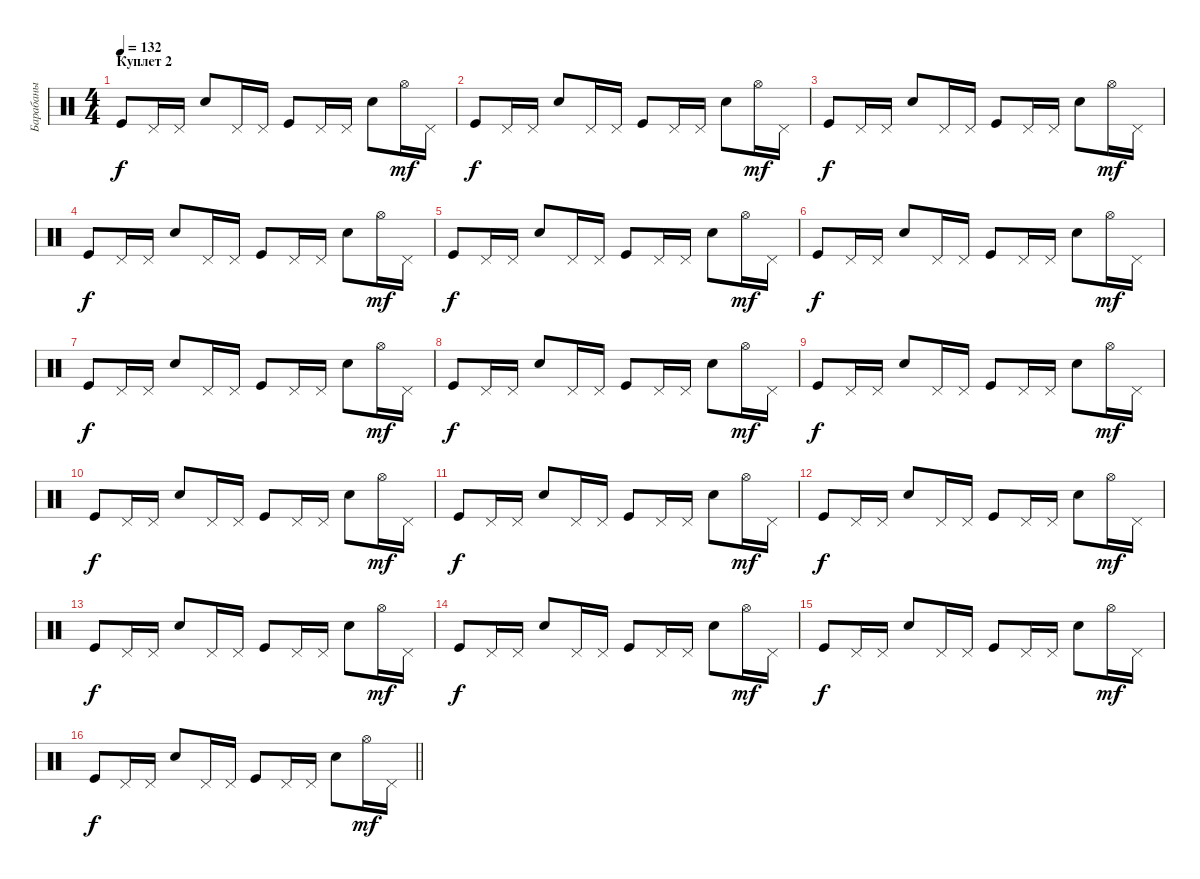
\track ("Барабаны" "Барабаны") {instrument percussion}
\staff {score}
\articulation defaults
\ts (4 4)
\section ("" "Куплет 2")
\tempo 132
\clef neutral
\ks c "Kick (hit)".8{dy f} "Pedal Hi-Hat (hit)".16 "Pedal Hi-Hat (hit)".16 "Snare (hit) 2".8 "Pedal Hi-Hat (hit)".16 "Pedal Hi-Hat (hit)".16 "Kick (hit)".8 "Pedal Hi-Hat (hit)".16 "Pedal Hi-Hat (hit)".16 "Snare (hit) 2".8 "Hi-Hat (open)".16{dy mf} "Pedal Hi-Hat (hit)".16
|
"Kick (hit)".8{dy f} "Pedal Hi-Hat (hit)".16 "Pedal Hi-Hat (hit)".16 "Snare (hit) 2".8 "Pedal Hi-Hat (hit)".16 "Pedal Hi-Hat (hit)".16 "Kick (hit)".8 "Pedal Hi-Hat (hit)".16 "Pedal Hi-Hat (hit)".16 "Snare (hit) 2".8 "Hi-Hat (open)".16{dy mf} "Pedal Hi-Hat (hit)".16 |
"Kick (hit)".8{dy f} "Pedal Hi-Hat (hit)".16 "Pedal Hi-Hat (hit)".16 "Snare (hit) 2".8 "Pedal Hi-Hat (hit)".16 "Pedal Hi-Hat (hit)".16 "Kick (hit)".8 "Pedal Hi-Hat (hit)".16 "Pedal Hi-Hat (hit)".16 "Snare (hit) 2".8 "Hi-Hat (open)".16{dy mf} "Pedal Hi-Hat (hit)".16 |
"Kick (hit)".8{dy f} "Pedal Hi-Hat (hit)".16 "Pedal Hi-Hat (hit)".16 "Snare (hit) 2".8 "Pedal Hi-Hat (hit)".16 "Pedal Hi-Hat (hit)".16 "Kick (hit)".8 "Pedal Hi-Hat (hit)".16 "Pedal Hi-Hat (hit)".16 "Snare (hit) 2".8 "Hi-Hat (open)".16{dy mf} "Pedal Hi-Hat (hit)".16 |
"Kick (hit)".8{dy f} "Pedal Hi-Hat (hit)".16 "Pedal Hi-Hat (hit)".16 "Snare (hit) 2".8 "Pedal Hi-Hat (hit)".16 "Pedal Hi-Hat (hit)".16 "Kick (hit)".8 "Pedal Hi-Hat (hit)".16 "Pedal Hi-Hat (hit)".16 "Snare (hit) 2".8 "Hi-Hat (open)".16{dy mf} "Pedal Hi-Hat (hit)".16 |
"Kick (hit)".8{dy f} "Pedal Hi-Hat (hit)".16 "Pedal Hi-Hat (hit)".16 "Snare (hit) 2".8 "Pedal Hi-Hat (hit)".16 "Pedal Hi-Hat (hit)".16 "Kick (hit)".8 "Pedal Hi-Hat (hit)".16 "Pedal Hi-Hat (hit)".16 "Snare (hit) 2".8 "Hi-Hat (open)".16{dy mf} "Pedal Hi-Hat (hit)".16 |
"Kick (hit)".8{dy f} "Pedal Hi-Hat (hit)".16 "Pedal Hi-Hat (hit)".16 "Snare (hit) 2".8 "Pedal Hi-Hat (hit)".16 "Pedal Hi-Hat (hit)".16 "Kick (hit)".8 "Pedal Hi-Hat (hit)".16 "Pedal Hi-Hat (hit)".16 "Snare (hit) 2".8 "Hi-Hat (open)".16{dy mf} "Pedal Hi-Hat (hit)".16 |
"Kick (hit)".8{dy f} "Pedal Hi-Hat (hit)".16 "Pedal Hi-Hat (hit)".16 "Snare (hit) 2".8 "Pedal Hi-Hat (hit)".16 "Pedal Hi-Hat (hit)".16 "Kick (hit)".8 "Pedal Hi-Hat (hit)".16 "Pedal Hi-Hat (hit)".16 "Snare (hit) 2".8 "Hi-Hat (open)".16{dy mf} "Pedal Hi-Hat (hit)".16 |
"Kick (hit)".8{dy f} "Pedal Hi-Hat (hit)".16 "Pedal Hi-Hat (hit)".16 "Snare (hit) 2".8 "Pedal Hi-Hat (hit)".16 "Pedal Hi-Hat (hit)".16 "Kick (hit)".8 "Pedal Hi-Hat (hit)".16 "Pedal Hi-Hat (hit)".16 "Snare (hit) 2".8 "Hi-Hat (open)".16{dy mf} "Pedal Hi-Hat (hit)".16 |
"Kick (hit)".8{dy f} "Pedal Hi-Hat (hit)".16 "Pedal Hi-Hat (hit)".16 "Snare (hit) 2".8 "Pedal Hi-Hat (hit)".16 "Pedal Hi-Hat (hit)".16 "Kick (hit)".8 "Pedal Hi-Hat (hit)".16 "Pedal Hi-Hat (hit)".16 "Snare (hit) 2".8 "Hi-Hat (open)".16{dy mf} "Pedal Hi-Hat (hit)".16 |
"Kick (hit)".8{dy f} "Pedal Hi-Hat (hit)".16 "Pedal Hi-Hat (hit)".16 "Snare (hit) 2".8 "Pedal Hi-Hat (hit)".16 "Pedal Hi-Hat (hit)".16 "Kick (hit)".8 "Pedal Hi-Hat (hit)".16 "Pedal Hi-Hat (hit)".16 "Snare (hit) 2".8 "Hi-Hat (open)".16{dy mf} "Pedal Hi-Hat (hit)".16 |
"Kick (hit)".8{dy f} "Pedal Hi-Hat (hit)".16 "Pedal Hi-Hat (hit)".16 "Snare (hit) 2".8 "Pedal Hi-Hat (hit)".16 "Pedal Hi-Hat (hit)".16 "Kick (hit)".8 "Pedal Hi-Hat (hit)".16 "Pedal Hi-Hat (hit)".16 "Snare (hit) 2".8 "Hi-Hat (open)".16{dy mf} "Pedal Hi-Hat (hit)".16 |
"Kick (hit)".8{dy f} "Pedal Hi-Hat (hit)".16 "Pedal Hi-Hat (hit)".16 "Snare (hit) 2".8 "Pedal Hi-Hat (hit)".16 "Pedal Hi-Hat (hit)".16 "Kick (hit)".8 "Pedal Hi-Hat (hit)".16 "Pedal Hi-Hat (hit)".16 "Snare (hit) 2".8 "Hi-Hat (open)".16{dy mf} "Pedal Hi-Hat (hit)".16 |
"Kick (hit)".8{dy f} "Pedal Hi-Hat (hit)".16 "Pedal Hi-Hat (hit)".16 "Snare (hit) 2".8 "Pedal Hi-Hat (hit)".16 "Pedal Hi-Hat (hit)".16 "Kick (hit)".8 "Pedal Hi-Hat (hit)".16 "Pedal Hi-Hat (hit)".16 "Snare (hit) 2".8 "Hi-Hat (open)".16{dy mf} "Pedal Hi-Hat (hit)".16 |
"Kick (hit)".8{dy f} "Pedal Hi-Hat (hit)".16 "Pedal Hi-Hat (hit)".16 "Snare (hit) 2".8 "Pedal Hi-Hat (hit)".16 "Pedal Hi-Hat (hit)".16 "Kick (hit)".8 "Pedal Hi-Hat (hit)".16 "Pedal Hi-Hat (hit)".16 "Snare (hit) 2".8 "Hi-Hat (open)".16{dy mf} "Pedal Hi-Hat (hit)".16 |
\barLineRight lightlight "Kick (hit)".8{dy f} "Pedal Hi-Hat (hit)".16 "Pedal Hi-Hat (hit)".16 "Snare (hit) 2".8 "Pedal Hi-Hat (hit)".16 "Pedal Hi-Hat (hit)".16 "Kick (hit)".8 "Pedal Hi-Hat (hit)".16 "Pedal Hi-Hat (hit)".16 "Snare (hit) 2".8 "Hi-Hat (open)".16{dy mf} "Pedal Hi-Hat (hit)".16
